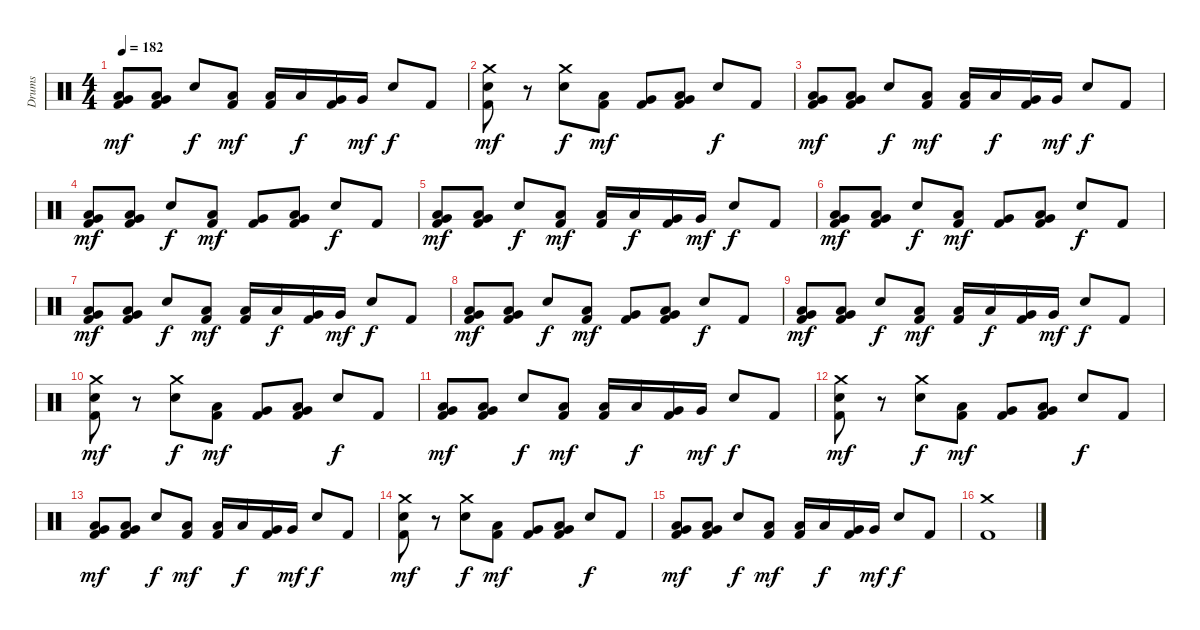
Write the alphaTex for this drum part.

\track ("Drums" "Drums") {instrument percussion}
\staff {score}
\articulation defaults
\ts (4 4)
\tempo 182
\clef neutral
\ks c
("Low Tom (hit)" "Very Low Tom (hit)" "Kick (hit) 2").8{dy mf} ("Low Tom (hit)" "Very Low Tom (hit)" "Kick (hit) 2").8 "Snare (hit) 2".8{dy f} ("Low Tom (hit)" "Kick (hit) 2").8{dy mf} ("Low Tom (hit)" "Kick (hit) 2").16 "Low Tom (hit)".16{dy f} ("Very Low Tom (hit)" "Kick (hit) 2").16 "Very Low Tom (hit)".16{dy mf} "Snare (hit) 2".8{dy f} "Kick (hit) 2".8 |
("Crash medium (hit)" "Snare (hit) 2" "Kick (hit) 2").8{dy mf} r.8 ("Crash medium (hit)" "Snare (hit) 2").8{dy f} ("Low Tom (hit)" "Kick (hit) 2").8{dy mf} ("Very Low Tom (hit)" "Kick (hit) 2").8 ("Low Tom (hit)" "Very Low Tom (hit)" "Kick (hit) 2").8 "Snare (hit) 2".8{dy f} "Kick (hit) 2".8 |
("Low Tom (hit)" "Very Low Tom (hit)" "Kick (hit) 2").8{dy mf} ("Low Tom (hit)" "Very Low Tom (hit)" "Kick (hit) 2").8 "Snare (hit) 2".8{dy f} ("Low Tom (hit)" "Kick (hit) 2").8{dy mf} ("Low Tom (hit)" "Kick (hit) 2").16 "Low Tom (hit)".16{dy f} ("Very Low Tom (hit)" "Kick (hit) 2").16 "Very Low Tom (hit)".16{dy mf} "Snare (hit) 2".8{dy f} "Kick (hit) 2".8 |
("Low Tom (hit)" "Very Low Tom (hit)" "Kick (hit) 2").8{dy mf} ("Low Tom (hit)" "Very Low Tom (hit)" "Kick (hit) 2").8 "Snare (hit) 2".8{dy f} ("Low Tom (hit)" "Kick (hit) 2").8{dy mf} ("Very Low Tom (hit)" "Kick (hit) 2").8 ("Low Tom (hit)" "Very Low Tom (hit)" "Kick (hit) 2").8 "Snare (hit) 2".8{dy f} "Kick (hit) 2".8 |
("Low Tom (hit)" "Very Low Tom (hit)" "Kick (hit) 2").8{dy mf} ("Low Tom (hit)" "Very Low Tom (hit)" "Kick (hit) 2").8 "Snare (hit) 2".8{dy f} ("Low Tom (hit)" "Kick (hit) 2").8{dy mf} ("Low Tom (hit)" "Kick (hit) 2").16 "Low Tom (hit)".16{dy f} ("Very Low Tom (hit)" "Kick (hit) 2").16 "Very Low Tom (hit)".16{dy mf} "Snare (hit) 2".8{dy f} "Kick (hit) 2".8 |
("Low Tom (hit)" "Very Low Tom (hit)" "Kick (hit) 2").8{dy mf} ("Low Tom (hit)" "Very Low Tom (hit)" "Kick (hit) 2").8 "Snare (hit) 2".8{dy f} ("Low Tom (hit)" "Kick (hit) 2").8{dy mf} ("Very Low Tom (hit)" "Kick (hit) 2").8 ("Low Tom (hit)" "Very Low Tom (hit)" "Kick (hit) 2").8 "Snare (hit) 2".8{dy f} "Kick (hit) 2".8 |
("Low Tom (hit)" "Very Low Tom (hit)" "Kick (hit) 2").8{dy mf} ("Low Tom (hit)" "Very Low Tom (hit)" "Kick (hit) 2").8 "Snare (hit) 2".8{dy f} ("Low Tom (hit)" "Kick (hit) 2").8{dy mf} ("Low Tom (hit)" "Kick (hit) 2").16 "Low Tom (hit)".16{dy f} ("Very Low Tom (hit)" "Kick (hit) 2").16 "Very Low Tom (hit)".16{dy mf} "Snare (hit) 2".8{dy f} "Kick (hit) 2".8 |
("Low Tom (hit)" "Very Low Tom (hit)" "Kick (hit) 2").8{dy mf} ("Low Tom (hit)" "Very Low Tom (hit)" "Kick (hit) 2").8 "Snare (hit) 2".8{dy f} ("Low Tom (hit)" "Kick (hit) 2").8{dy mf} ("Very Low Tom (hit)" "Kick (hit) 2").8 ("Low Tom (hit)" "Very Low Tom (hit)" "Kick (hit) 2").8 "Snare (hit) 2".8{dy f} "Kick (hit) 2".8 |
("Low Tom (hit)" "Very Low Tom (hit)" "Kick (hit) 2").8{dy mf} ("Low Tom (hit)" "Very Low Tom (hit)" "Kick (hit) 2").8 "Snare (hit) 2".8{dy f} ("Low Tom (hit)" "Kick (hit) 2").8{dy mf} ("Low Tom (hit)" "Kick (hit) 2").16 "Low Tom (hit)".16{dy f} ("Very Low Tom (hit)" "Kick (hit) 2").16 "Very Low Tom (hit)".16{dy mf} "Snare (hit) 2".8{dy f} "Kick (hit) 2".8 |
("Crash medium (hit)" "Snare (hit) 2" "Kick (hit) 2").8{dy mf} r.8 ("Crash medium (hit)" "Snare (hit) 2").8{dy f} ("Low Tom (hit)" "Kick (hit) 2").8{dy mf} ("Very Low Tom (hit)" "Kick (hit) 2").8 ("Low Tom (hit)" "Very Low Tom (hit)" "Kick (hit) 2").8 "Snare (hit) 2".8{dy f} "Kick (hit) 2".8 |
("Low Tom (hit)" "Very Low Tom (hit)" "Kick (hit) 2").8{dy mf} ("Low Tom (hit)" "Very Low Tom (hit)" "Kick (hit) 2").8 "Snare (hit) 2".8{dy f} ("Low Tom (hit)" "Kick (hit) 2").8{dy mf} ("Low Tom (hit)" "Kick (hit) 2").16 "Low Tom (hit)".16{dy f} ("Very Low Tom (hit)" "Kick (hit) 2").16 "Very Low Tom (hit)".16{dy mf} "Snare (hit) 2".8{dy f} "Kick (hit) 2".8 |
("Crash medium (hit)" "Snare (hit) 2" "Kick (hit) 2").8{dy mf} r.8 ("Crash medium (hit)" "Snare (hit) 2").8{dy f} ("Low Tom (hit)" "Kick (hit) 2").8{dy mf} ("Very Low Tom (hit)" "Kick (hit) 2").8 ("Low Tom (hit)" "Very Low Tom (hit)" "Kick (hit) 2").8 "Snare (hit) 2".8{dy f} "Kick (hit) 2".8 |
("Low Tom (hit)" "Very Low Tom (hit)" "Kick (hit) 2").8{dy mf} ("Low Tom (hit)" "Very Low Tom (hit)" "Kick (hit) 2").8 "Snare (hit) 2".8{dy f} ("Low Tom (hit)" "Kick (hit) 2").8{dy mf} ("Low Tom (hit)" "Kick (hit) 2").16 "Low Tom (hit)".16{dy f} ("Very Low Tom (hit)" "Kick (hit) 2").16 "Very Low Tom (hit)".16{dy mf} "Snare (hit) 2".8{dy f} "Kick (hit) 2".8 |
("Crash medium (hit)" "Snare (hit) 2" "Kick (hit) 2").8{dy mf} r.8 ("Crash medium (hit)" "Snare (hit) 2").8{dy f} ("Low Tom (hit)" "Kick (hit) 2").8{dy mf} ("Very Low Tom (hit)" "Kick (hit) 2").8 ("Low Tom (hit)" "Very Low Tom (hit)" "Kick (hit) 2").8 "Snare (hit) 2".8{dy f} "Kick (hit) 2".8 |
("Low Tom (hit)" "Very Low Tom (hit)" "Kick (hit) 2").8{dy mf} ("Low Tom (hit)" "Very Low Tom (hit)" "Kick (hit) 2").8 "Snare (hit) 2".8{dy f} ("Low Tom (hit)" "Kick (hit) 2").8{dy mf} ("Low Tom (hit)" "Kick (hit) 2").16 "Low Tom (hit)".16{dy f} ("Very Low Tom (hit)" "Kick (hit) 2").16 "Very Low Tom (hit)".16{dy mf} "Snare (hit) 2".8{dy f} "Kick (hit) 2".8 |
("Crash medium (hit)" "Kick (hit) 2").1
